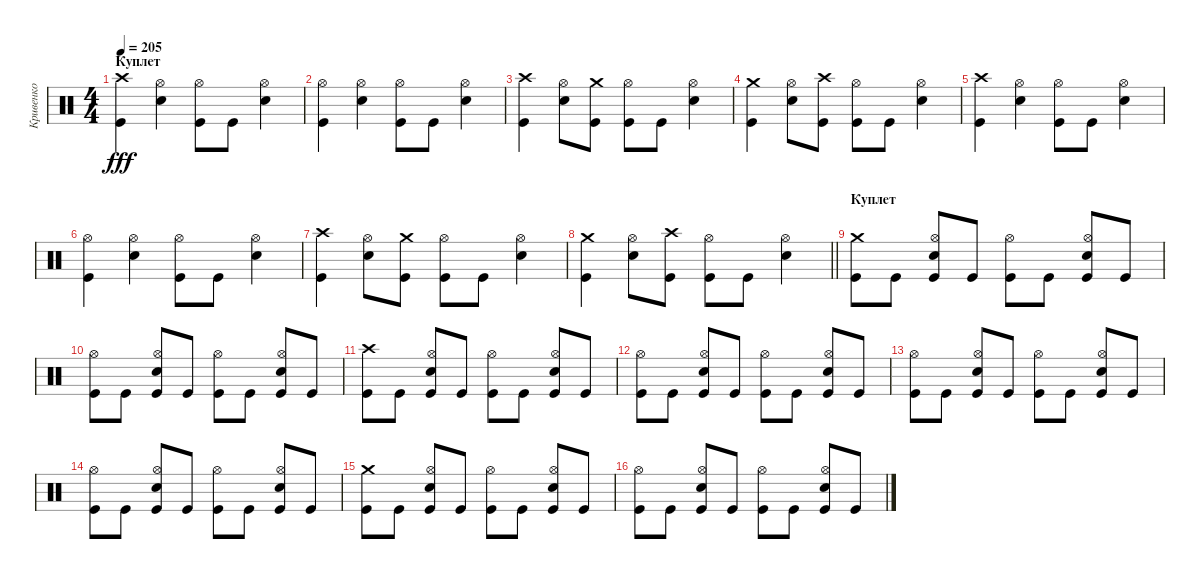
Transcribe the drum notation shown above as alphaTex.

\track ("Кривенко" "Кривенко") {instrument percussion}
\staff {score}
\articulation defaults
\ts (4 4)
\section ("" "Куплет")
\tempo 205
\clef neutral
\ks c
("Crash high (hit)" "Kick (hit)").4{dy fff} ("Hi-Hat (open)" "Electric Snare (hit)").4 ("Hi-Hat (open)" "Kick (hit)").8 "Kick (hit)".8 ("Hi-Hat (open)" "Electric Snare (hit)").4 |
("Hi-Hat (open)" "Kick (hit)").4 ("Hi-Hat (open)" "Electric Snare (hit)").4 ("Hi-Hat (open)" "Kick (hit)").8 "Kick (hit)".8 ("Hi-Hat (open)" "Electric Snare (hit)").4 |
("Crash high (hit)" "Kick (hit)").4 ("Hi-Hat (open)" "Electric Snare (hit)").8 ("Crash medium (hit)" "Kick (hit)").8 ("Hi-Hat (open)" "Kick (hit)").8 "Kick (hit)".8 ("Hi-Hat (open)" "Electric Snare (hit)").4 |
("Crash medium (hit)" "Kick (hit)").4 ("Hi-Hat (open)" "Electric Snare (hit)").8 ("Crash high (hit)" "Kick (hit)").8 ("Hi-Hat (open)" "Kick (hit)").8 "Kick (hit)".8 ("Hi-Hat (open)" "Electric Snare (hit)").4 |
("Crash high (hit)" "Kick (hit)").4 ("Hi-Hat (open)" "Electric Snare (hit)").4 ("Hi-Hat (open)" "Kick (hit)").8 "Kick (hit)".8 ("Hi-Hat (open)" "Electric Snare (hit)").4 |
("Hi-Hat (open)" "Kick (hit)").4 ("Hi-Hat (open)" "Electric Snare (hit)").4 ("Hi-Hat (open)" "Kick (hit)").8 "Kick (hit)".8 ("Hi-Hat (open)" "Electric Snare (hit)").4 |
("Crash high (hit)" "Kick (hit)").4 ("Hi-Hat (open)" "Electric Snare (hit)").8 ("Crash medium (hit)" "Kick (hit)").8 ("Hi-Hat (open)" "Kick (hit)").8 "Kick (hit)".8 ("Hi-Hat (open)" "Electric Snare (hit)").4 |
\barLineRight lightlight
("Crash medium (hit)" "Kick (hit)").4 ("Hi-Hat (open)" "Electric Snare (hit)").8 ("Crash high (hit)" "Kick (hit)").8 ("Hi-Hat (open)" "Kick (hit)").8 "Kick (hit)".8 ("Hi-Hat (open)" "Electric Snare (hit)").4 |
\section ("" "Куплет")
("Crash medium (hit)" "Kick (hit)").8 "Kick (hit)".8 ("Hi-Hat (open)" "Electric Snare (hit)" "Kick (hit)").8 "Kick (hit)".8 ("Hi-Hat (open)" "Kick (hit)").8 "Kick (hit)".8 ("Hi-Hat (open)" "Electric Snare (hit)" "Kick (hit)").8 "Kick (hit)".8 |
("Hi-Hat (open)" "Kick (hit)").8 "Kick (hit)".8 ("Hi-Hat (open)" "Electric Snare (hit)" "Kick (hit)").8 "Kick (hit)".8 ("Hi-Hat (open)" "Kick (hit)").8 "Kick (hit)".8 ("Hi-Hat (open)" "Electric Snare (hit)" "Kick (hit)").8 "Kick (hit)".8 |
("Crash high (hit)" "Kick (hit)").8 "Kick (hit)".8 ("Hi-Hat (open)" "Electric Snare (hit)" "Kick (hit)").8 "Kick (hit)".8 ("Hi-Hat (open)" "Kick (hit)").8 "Kick (hit)".8 ("Hi-Hat (open)" "Electric Snare (hit)" "Kick (hit)").8 "Kick (hit)".8 |
("Hi-Hat (open)" "Kick (hit)").8 "Kick (hit)".8 ("Hi-Hat (open)" "Electric Snare (hit)" "Kick (hit)").8 "Kick (hit)".8 ("Hi-Hat (open)" "Kick (hit)").8 "Kick (hit)".8 ("Hi-Hat (open)" "Electric Snare (hit)" "Kick (hit)").8 "Kick (hit)".8 |
("Hi-Hat (open)" "Kick (hit)").8 "Kick (hit)".8 ("Hi-Hat (open)" "Electric Snare (hit)" "Kick (hit)").8 "Kick (hit)".8 ("Hi-Hat (open)" "Kick (hit)").8 "Kick (hit)".8 ("Hi-Hat (open)" "Electric Snare (hit)" "Kick (hit)").8 "Kick (hit)".8 |
("Hi-Hat (open)" "Kick (hit)").8 "Kick (hit)".8 ("Hi-Hat (open)" "Electric Snare (hit)" "Kick (hit)").8 "Kick (hit)".8 ("Hi-Hat (open)" "Kick (hit)").8 "Kick (hit)".8 ("Hi-Hat (open)" "Electric Snare (hit)" "Kick (hit)").8 "Kick (hit)".8 |
("Crash medium (hit)" "Kick (hit)").8 "Kick (hit)".8 ("Hi-Hat (open)" "Electric Snare (hit)" "Kick (hit)").8 "Kick (hit)".8 ("Hi-Hat (open)" "Kick (hit)").8 "Kick (hit)".8 ("Hi-Hat (open)" "Electric Snare (hit)" "Kick (hit)").8 "Kick (hit)".8 |
("Hi-Hat (open)" "Kick (hit)").8 "Kick (hit)".8 ("Hi-Hat (open)" "Electric Snare (hit)" "Kick (hit)").8 "Kick (hit)".8 ("Hi-Hat (open)" "Kick (hit)").8 "Kick (hit)".8 ("Hi-Hat (open)" "Electric Snare (hit)" "Kick (hit)").8 "Kick (hit)".8
